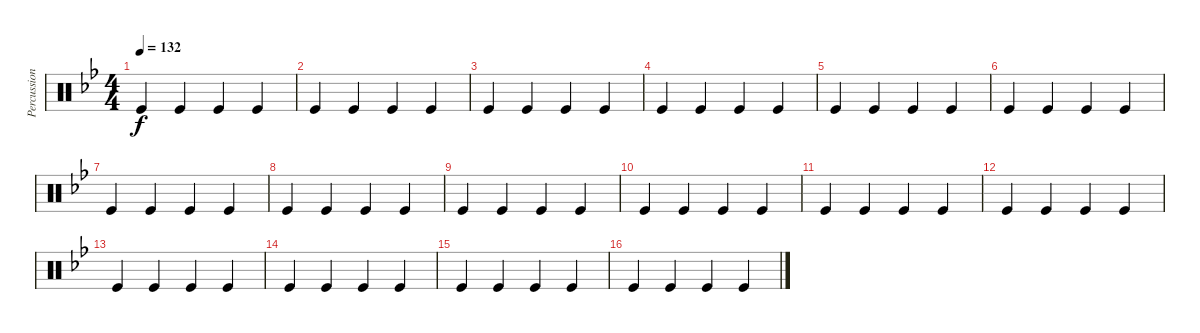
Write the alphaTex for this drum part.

\track ("Percussion" "Percussion") {instrument percussion}
\staff {score}
\articulation defaults
\ts (4 4)
\tempo 132
\clef neutral
\ks bb "Kick (hit)".4{dy f} "Kick (hit)".4 "Kick (hit)".4 "Kick (hit)".4
|
"Kick (hit)".4 "Kick (hit)".4 "Kick (hit)".4 "Kick (hit)".4 |
"Kick (hit)".4 "Kick (hit)".4 "Kick (hit)".4 "Kick (hit)".4 |
"Kick (hit)".4 "Kick (hit)".4 "Kick (hit)".4 "Kick (hit)".4 |
"Kick (hit)".4 "Kick (hit)".4 "Kick (hit)".4 "Kick (hit)".4 |
"Kick (hit)".4 "Kick (hit)".4 "Kick (hit)".4 "Kick (hit)".4 |
"Kick (hit)".4 "Kick (hit)".4 "Kick (hit)".4 "Kick (hit)".4 |
"Kick (hit)".4 "Kick (hit)".4 "Kick (hit)".4 "Kick (hit)".4 |
"Kick (hit)".4 "Kick (hit)".4 "Kick (hit)".4 "Kick (hit)".4 |
"Kick (hit)".4 "Kick (hit)".4 "Kick (hit)".4 "Kick (hit)".4 |
"Kick (hit)".4 "Kick (hit)".4 "Kick (hit)".4 "Kick (hit)".4 |
"Kick (hit)".4 "Kick (hit)".4 "Kick (hit)".4 "Kick (hit)".4 |
"Kick (hit)".4 "Kick (hit)".4 "Kick (hit)".4 "Kick (hit)".4 |
"Kick (hit)".4 "Kick (hit)".4 "Kick (hit)".4 "Kick (hit)".4 |
"Kick (hit)".4 "Kick (hit)".4 "Kick (hit)".4 "Kick (hit)".4 |
"Kick (hit)".4 "Kick (hit)".4 "Kick (hit)".4 "Kick (hit)".4
